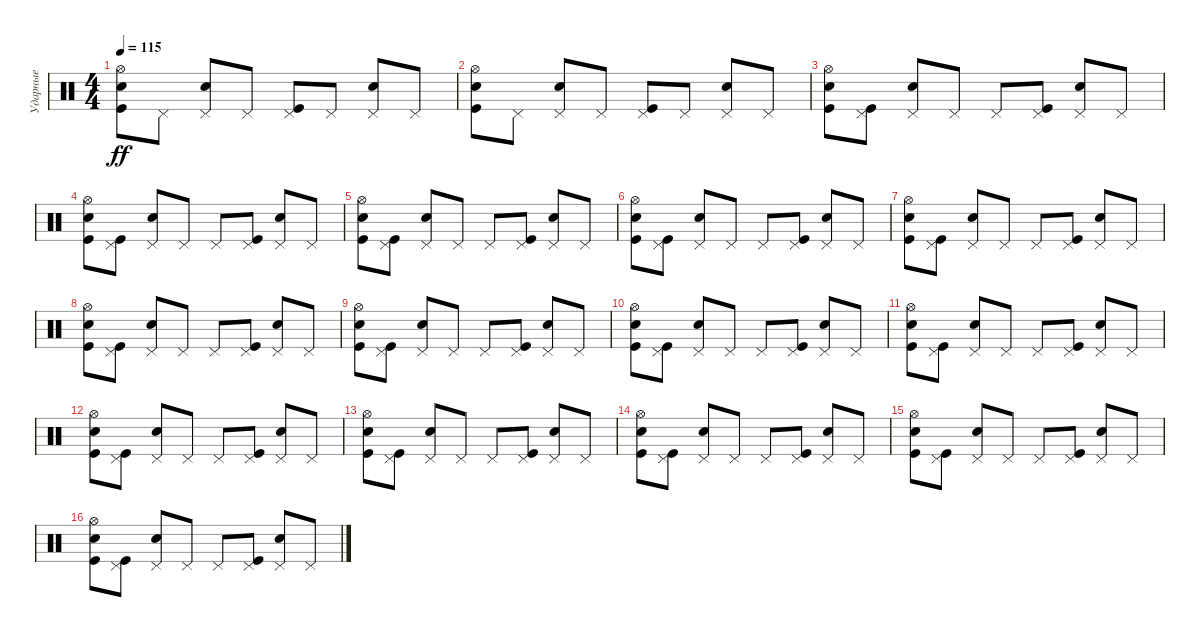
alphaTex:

\track ("Ударные" "Ударные") {instrument percussion}
\staff {score}
\articulation defaults
\ts (4 4)
\tempo 115
\clef neutral
\ks c
("Kick (hit)" "Electric Snare (hit)" "Hi-Hat (open)").8{dy ff} "Pedal Hi-Hat (hit)".8 ("Electric Snare (hit)" "Pedal Hi-Hat (hit)").8 "Pedal Hi-Hat (hit)".8 ("Kick (hit)" "Pedal Hi-Hat (hit)").8 "Pedal Hi-Hat (hit)".8 ("Electric Snare (hit)" "Pedal Hi-Hat (hit)").8 "Pedal Hi-Hat (hit)".8 |
("Kick (hit)" "Electric Snare (hit)" "Hi-Hat (open)").8 "Pedal Hi-Hat (hit)".8 ("Electric Snare (hit)" "Pedal Hi-Hat (hit)").8 "Pedal Hi-Hat (hit)".8 ("Kick (hit)" "Pedal Hi-Hat (hit)").8 "Pedal Hi-Hat (hit)".8 ("Electric Snare (hit)" "Pedal Hi-Hat (hit)").8 "Pedal Hi-Hat (hit)".8 |
("Kick (hit)" "Electric Snare (hit)" "Hi-Hat (open)").8 ("Kick (hit)" "Pedal Hi-Hat (hit)").8 ("Electric Snare (hit)" "Pedal Hi-Hat (hit)").8 "Pedal Hi-Hat (hit)".8 "Pedal Hi-Hat (hit)".8 ("Kick (hit)" "Pedal Hi-Hat (hit)").8 ("Electric Snare (hit)" "Pedal Hi-Hat (hit)").8 "Pedal Hi-Hat (hit)".8 |
("Kick (hit)" "Electric Snare (hit)" "Hi-Hat (open)").8 ("Kick (hit)" "Pedal Hi-Hat (hit)").8 ("Electric Snare (hit)" "Pedal Hi-Hat (hit)").8 "Pedal Hi-Hat (hit)".8 "Pedal Hi-Hat (hit)".8 ("Kick (hit)" "Pedal Hi-Hat (hit)").8 ("Electric Snare (hit)" "Pedal Hi-Hat (hit)").8 "Pedal Hi-Hat (hit)".8 |
("Kick (hit)" "Electric Snare (hit)" "Hi-Hat (open)").8 ("Kick (hit)" "Pedal Hi-Hat (hit)").8 ("Electric Snare (hit)" "Pedal Hi-Hat (hit)").8 "Pedal Hi-Hat (hit)".8 "Pedal Hi-Hat (hit)".8 ("Kick (hit)" "Pedal Hi-Hat (hit)").8 ("Electric Snare (hit)" "Pedal Hi-Hat (hit)").8 "Pedal Hi-Hat (hit)".8 |
("Kick (hit)" "Electric Snare (hit)" "Hi-Hat (open)").8 ("Kick (hit)" "Pedal Hi-Hat (hit)").8 ("Electric Snare (hit)" "Pedal Hi-Hat (hit)").8 "Pedal Hi-Hat (hit)".8 "Pedal Hi-Hat (hit)".8 ("Kick (hit)" "Pedal Hi-Hat (hit)").8 ("Electric Snare (hit)" "Pedal Hi-Hat (hit)").8 "Pedal Hi-Hat (hit)".8 |
("Kick (hit)" "Electric Snare (hit)" "Hi-Hat (open)").8 ("Kick (hit)" "Pedal Hi-Hat (hit)").8 ("Electric Snare (hit)" "Pedal Hi-Hat (hit)").8 "Pedal Hi-Hat (hit)".8 "Pedal Hi-Hat (hit)".8 ("Kick (hit)" "Pedal Hi-Hat (hit)").8 ("Electric Snare (hit)" "Pedal Hi-Hat (hit)").8 "Pedal Hi-Hat (hit)".8 |
("Kick (hit)" "Electric Snare (hit)" "Hi-Hat (open)").8 ("Kick (hit)" "Pedal Hi-Hat (hit)").8 ("Electric Snare (hit)" "Pedal Hi-Hat (hit)").8 "Pedal Hi-Hat (hit)".8 "Pedal Hi-Hat (hit)".8 ("Kick (hit)" "Pedal Hi-Hat (hit)").8 ("Electric Snare (hit)" "Pedal Hi-Hat (hit)").8 "Pedal Hi-Hat (hit)".8 |
("Kick (hit)" "Electric Snare (hit)" "Hi-Hat (open)").8 ("Kick (hit)" "Pedal Hi-Hat (hit)").8 ("Electric Snare (hit)" "Pedal Hi-Hat (hit)").8 "Pedal Hi-Hat (hit)".8 "Pedal Hi-Hat (hit)".8 ("Kick (hit)" "Pedal Hi-Hat (hit)").8 ("Electric Snare (hit)" "Pedal Hi-Hat (hit)").8 "Pedal Hi-Hat (hit)".8 |
("Kick (hit)" "Electric Snare (hit)" "Hi-Hat (open)").8 ("Kick (hit)" "Pedal Hi-Hat (hit)").8 ("Electric Snare (hit)" "Pedal Hi-Hat (hit)").8 "Pedal Hi-Hat (hit)".8 "Pedal Hi-Hat (hit)".8 ("Kick (hit)" "Pedal Hi-Hat (hit)").8 ("Electric Snare (hit)" "Pedal Hi-Hat (hit)").8 "Pedal Hi-Hat (hit)".8 |
("Kick (hit)" "Electric Snare (hit)" "Hi-Hat (open)").8 ("Kick (hit)" "Pedal Hi-Hat (hit)").8 ("Electric Snare (hit)" "Pedal Hi-Hat (hit)").8 "Pedal Hi-Hat (hit)".8 "Pedal Hi-Hat (hit)".8 ("Kick (hit)" "Pedal Hi-Hat (hit)").8 ("Electric Snare (hit)" "Pedal Hi-Hat (hit)").8 "Pedal Hi-Hat (hit)".8 |
("Kick (hit)" "Electric Snare (hit)" "Hi-Hat (open)").8 ("Kick (hit)" "Pedal Hi-Hat (hit)").8 ("Electric Snare (hit)" "Pedal Hi-Hat (hit)").8 "Pedal Hi-Hat (hit)".8 "Pedal Hi-Hat (hit)".8 ("Kick (hit)" "Pedal Hi-Hat (hit)").8 ("Electric Snare (hit)" "Pedal Hi-Hat (hit)").8 "Pedal Hi-Hat (hit)".8 |
("Kick (hit)" "Electric Snare (hit)" "Hi-Hat (open)").8 ("Kick (hit)" "Pedal Hi-Hat (hit)").8 ("Electric Snare (hit)" "Pedal Hi-Hat (hit)").8 "Pedal Hi-Hat (hit)".8 "Pedal Hi-Hat (hit)".8 ("Kick (hit)" "Pedal Hi-Hat (hit)").8 ("Electric Snare (hit)" "Pedal Hi-Hat (hit)").8 "Pedal Hi-Hat (hit)".8 |
("Kick (hit)" "Electric Snare (hit)" "Hi-Hat (open)").8 ("Kick (hit)" "Pedal Hi-Hat (hit)").8 ("Electric Snare (hit)" "Pedal Hi-Hat (hit)").8 "Pedal Hi-Hat (hit)".8 "Pedal Hi-Hat (hit)".8 ("Kick (hit)" "Pedal Hi-Hat (hit)").8 ("Electric Snare (hit)" "Pedal Hi-Hat (hit)").8 "Pedal Hi-Hat (hit)".8 |
("Kick (hit)" "Electric Snare (hit)" "Hi-Hat (open)").8 ("Kick (hit)" "Pedal Hi-Hat (hit)").8 ("Electric Snare (hit)" "Pedal Hi-Hat (hit)").8 "Pedal Hi-Hat (hit)".8 "Pedal Hi-Hat (hit)".8 ("Kick (hit)" "Pedal Hi-Hat (hit)").8 ("Electric Snare (hit)" "Pedal Hi-Hat (hit)").8 "Pedal Hi-Hat (hit)".8 |
("Kick (hit)" "Electric Snare (hit)" "Hi-Hat (open)").8 ("Kick (hit)" "Pedal Hi-Hat (hit)").8 ("Electric Snare (hit)" "Pedal Hi-Hat (hit)").8 "Pedal Hi-Hat (hit)".8 "Pedal Hi-Hat (hit)".8 ("Kick (hit)" "Pedal Hi-Hat (hit)").8 ("Electric Snare (hit)" "Pedal Hi-Hat (hit)").8 "Pedal Hi-Hat (hit)".8
